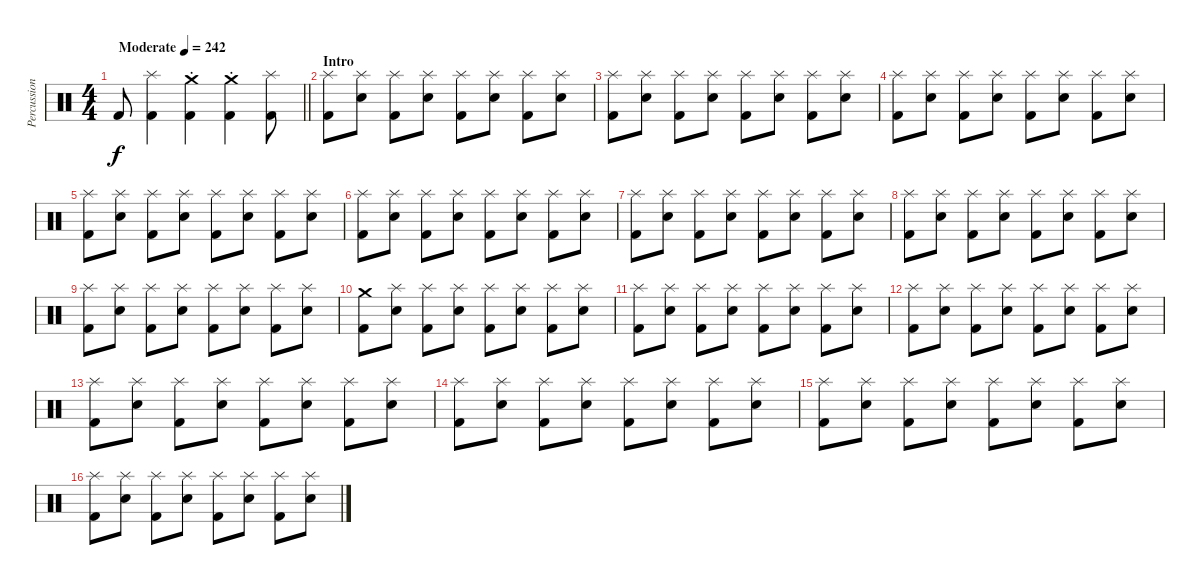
\track ("Percussion" "Percussion") {instrument percussion}
\staff {score}
\articulation defaults
\ts (4 4)
\tempo (242 "Moderate")
\clef neutral
\barLineRight lightlight
\ks c "Kick (hit) 2".8{dy f}
("Splash (hit)" "Kick (hit) 2").4 ("Crash medium (hit)"{st} "Kick (hit) 2").4 ("Crash medium (hit)"{st} "Kick (hit) 2").4 ("Splash (hit)" "Kick (hit) 2").8 |
\section ("" "Intro")
("Splash (hit)" "Kick (hit) 2").8 ("Splash (hit)" "Snare (hit) 2").8 ("Splash (hit)" "Kick (hit) 2").8 ("Splash (hit)" "Snare (hit) 2").8 ("Splash (hit)" "Kick (hit) 2").8 ("Splash (hit)" "Snare (hit) 2").8 ("Splash (hit)" "Kick (hit) 2").8 ("Splash (hit)" "Snare (hit) 2").8 |
("Splash (hit)" "Kick (hit) 2").8 ("Splash (hit)" "Snare (hit) 2").8 ("Splash (hit)" "Kick (hit) 2").8 ("Splash (hit)" "Snare (hit) 2").8 ("Splash (hit)" "Kick (hit) 2").8 ("Splash (hit)" "Snare (hit) 2").8 ("Splash (hit)" "Kick (hit) 2").8 ("Splash (hit)" "Snare (hit) 2").8 |
("Splash (hit)" "Kick (hit) 2").8 ("Splash (hit)" "Snare (hit) 2").8 ("Splash (hit)" "Kick (hit) 2").8 ("Splash (hit)" "Snare (hit) 2").8 ("Splash (hit)" "Kick (hit) 2").8 ("Splash (hit)" "Snare (hit) 2").8 ("Splash (hit)" "Kick (hit) 2").8 ("Splash (hit)" "Snare (hit) 2").8 |
("Splash (hit)" "Kick (hit) 2").8 ("Splash (hit)" "Snare (hit) 2").8 ("Splash (hit)" "Kick (hit) 2").8 ("Splash (hit)" "Snare (hit) 2").8 ("Splash (hit)" "Kick (hit) 2").8 ("Splash (hit)" "Snare (hit) 2").8 ("Splash (hit)" "Kick (hit) 2").8 ("Splash (hit)" "Snare (hit) 2").8 |
("Splash (hit)" "Kick (hit) 2").8 ("Splash (hit)" "Snare (hit) 2").8 ("Splash (hit)" "Kick (hit) 2").8 ("Splash (hit)" "Snare (hit) 2").8 ("Splash (hit)" "Kick (hit) 2").8 ("Splash (hit)" "Snare (hit) 2").8 ("Splash (hit)" "Kick (hit) 2").8 ("Splash (hit)" "Snare (hit) 2").8 |
("Splash (hit)" "Kick (hit) 2").8 ("Splash (hit)" "Snare (hit) 2").8 ("Splash (hit)" "Kick (hit) 2").8 ("Splash (hit)" "Snare (hit) 2").8 ("Splash (hit)" "Kick (hit) 2").8 ("Splash (hit)" "Snare (hit) 2").8 ("Splash (hit)" "Kick (hit) 2").8 ("Splash (hit)" "Snare (hit) 2").8 |
("Splash (hit)" "Kick (hit) 2").8 ("Splash (hit)" "Snare (hit) 2").8 ("Splash (hit)" "Kick (hit) 2").8 ("Splash (hit)" "Snare (hit) 2").8 ("Splash (hit)" "Kick (hit) 2").8 ("Splash (hit)" "Snare (hit) 2").8 ("Splash (hit)" "Kick (hit) 2").8 ("Splash (hit)" "Snare (hit) 2").8 |
("Splash (hit)" "Kick (hit) 2").8 ("Splash (hit)" "Snare (hit) 2").8 ("Splash (hit)" "Kick (hit) 2").8 ("Splash (hit)" "Snare (hit) 2").8 ("Splash (hit)" "Kick (hit) 2").8 ("Splash (hit)" "Snare (hit) 2").8 ("Splash (hit)" "Kick (hit) 2").8 ("Splash (hit)" "Snare (hit) 2").8 |
("Crash medium (hit)" "Kick (hit) 2").8 ("Splash (hit)" "Snare (hit) 2").8 ("Splash (hit)" "Kick (hit) 2").8 ("Splash (hit)" "Snare (hit) 2").8 ("Splash (hit)" "Kick (hit) 2").8 ("Splash (hit)" "Snare (hit) 2").8 ("Splash (hit)" "Kick (hit) 2").8 ("Splash (hit)" "Snare (hit) 2").8 |
("Splash (hit)" "Kick (hit) 2").8 ("Splash (hit)" "Snare (hit) 2").8 ("Splash (hit)" "Kick (hit) 2").8 ("Splash (hit)" "Snare (hit) 2").8 ("Splash (hit)" "Kick (hit) 2").8 ("Splash (hit)" "Snare (hit) 2").8 ("Splash (hit)" "Kick (hit) 2").8 ("Splash (hit)" "Snare (hit) 2").8 |
("Splash (hit)" "Kick (hit) 2").8 ("Splash (hit)" "Snare (hit) 2").8 ("Splash (hit)" "Kick (hit) 2").8 ("Splash (hit)" "Snare (hit) 2").8 ("Splash (hit)" "Kick (hit) 2").8 ("Splash (hit)" "Snare (hit) 2").8 ("Splash (hit)" "Kick (hit) 2").8 ("Splash (hit)" "Snare (hit) 2").8 |
("Splash (hit)" "Kick (hit) 2").8 ("Splash (hit)" "Snare (hit) 2").8 ("Splash (hit)" "Kick (hit) 2").8 ("Splash (hit)" "Snare (hit) 2").8 ("Splash (hit)" "Kick (hit) 2").8 ("Splash (hit)" "Snare (hit) 2").8 ("Splash (hit)" "Kick (hit) 2").8 ("Splash (hit)" "Snare (hit) 2").8 |
("Splash (hit)" "Kick (hit) 2").8 ("Splash (hit)" "Snare (hit) 2").8 ("Splash (hit)" "Kick (hit) 2").8 ("Splash (hit)" "Snare (hit) 2").8 ("Splash (hit)" "Kick (hit) 2").8 ("Splash (hit)" "Snare (hit) 2").8 ("Splash (hit)" "Kick (hit) 2").8 ("Splash (hit)" "Snare (hit) 2").8 |
("Splash (hit)" "Kick (hit) 2").8 ("Splash (hit)" "Snare (hit) 2").8 ("Splash (hit)" "Kick (hit) 2").8 ("Splash (hit)" "Snare (hit) 2").8 ("Splash (hit)" "Kick (hit) 2").8 ("Splash (hit)" "Snare (hit) 2").8 ("Splash (hit)" "Kick (hit) 2").8 ("Splash (hit)" "Snare (hit) 2").8 |
("Splash (hit)" "Kick (hit) 2").8 ("Splash (hit)" "Snare (hit) 2").8 ("Splash (hit)" "Kick (hit) 2").8 ("Splash (hit)" "Snare (hit) 2").8 ("Splash (hit)" "Kick (hit) 2").8 ("Splash (hit)" "Snare (hit) 2").8 ("Splash (hit)" "Kick (hit) 2").8 ("Splash (hit)" "Snare (hit) 2").8
